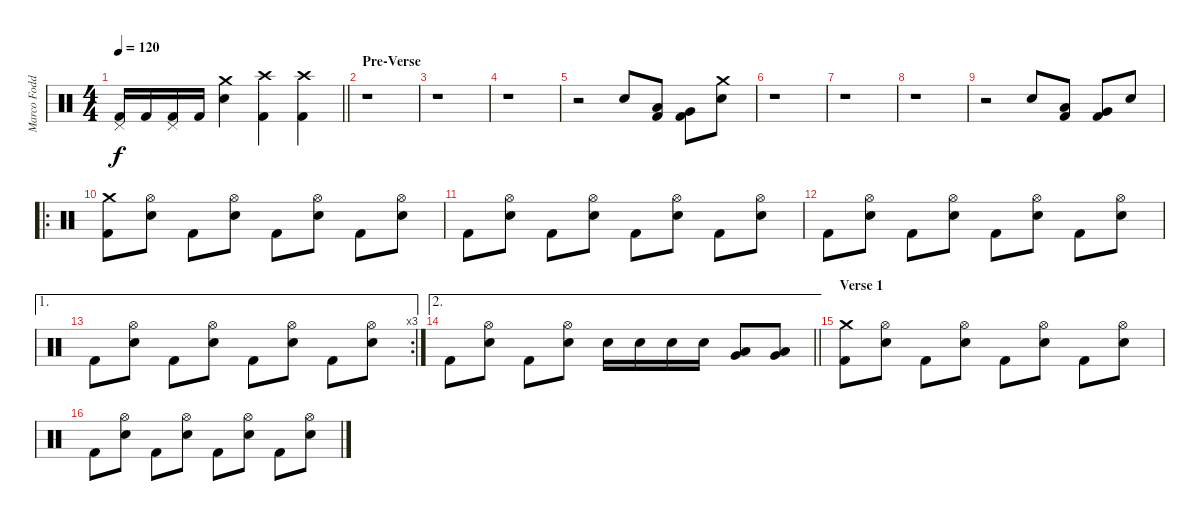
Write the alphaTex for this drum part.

\track ("Marco Foddis " "Marco Fodd") {instrument percussion}
\staff {score}
\articulation defaults
\ts (4 4)
\tempo 120
\clef neutral
\barLineRight lightlight
\ks c
("Pedal Hi-Hat (hit)" "Kick (hit) 2").16{dy f} "Kick (hit) 2".16 ("Pedal Hi-Hat (hit)" "Kick (hit) 2").16 "Kick (hit) 2".16 ("Crash medium (hit)" "Electric Snare (hit)").4 ("Crash high (hit)" "Kick (hit) 2").4 ("Crash high (hit)" "Kick (hit) 2").4 |
\section ("" "Pre-Verse")
r.1 |
r.1 |
r.1 |
r.2 "Electric Snare (hit)".8 ("Low Tom (hit)" "Kick (hit) 2").8 ("Very Low Tom (hit)" "Kick (hit) 2").8 ("Crash medium (hit)" "Electric Snare (hit)").8 |
r.1 |
r.1 |
r.1 |
r.2 "Electric Snare (hit)".8 ("Low Tom (hit)" "Kick (hit) 2").8 ("Very Low Tom (hit)" "Kick (hit) 2").8 "Electric Snare (hit)".8 |
\ro
("Crash medium (hit)" "Kick (hit) 2").8 ("Hi-Hat (open)" "Electric Snare (hit)").8 "Kick (hit) 2".8 ("Hi-Hat (open)" "Electric Snare (hit)").8 "Kick (hit) 2".8 ("Hi-Hat (open)" "Electric Snare (hit)").8 "Kick (hit) 2".8 ("Hi-Hat (open)" "Electric Snare (hit)").8 |
"Kick (hit) 2".8 ("Hi-Hat (open)" "Electric Snare (hit)").8 "Kick (hit) 2".8 ("Hi-Hat (open)" "Electric Snare (hit)").8 "Kick (hit) 2".8 ("Hi-Hat (open)" "Electric Snare (hit)").8 "Kick (hit) 2".8 ("Hi-Hat (open)" "Electric Snare (hit)").8 |
"Kick (hit) 2".8 ("Hi-Hat (open)" "Electric Snare (hit)").8 "Kick (hit) 2".8 ("Hi-Hat (open)" "Electric Snare (hit)").8 "Kick (hit) 2".8 ("Hi-Hat (open)" "Electric Snare (hit)").8 "Kick (hit) 2".8 ("Hi-Hat (open)" "Electric Snare (hit)").8 |
\ae 1
\rc 3 "Kick (hit) 2".8
("Hi-Hat (open)" "Electric Snare (hit)").8 "Kick (hit) 2".8 ("Hi-Hat (open)" "Electric Snare (hit)").8 "Kick (hit) 2".8 ("Hi-Hat (open)" "Electric Snare (hit)").8 "Kick (hit) 2".8 ("Hi-Hat (open)" "Electric Snare (hit)").8 |
\ae 2
\barLineRight lightlight "Kick (hit) 2".8
("Hi-Hat (open)" "Electric Snare (hit)").8 "Kick (hit) 2".8 ("Hi-Hat (open)" "Electric Snare (hit)").8 "Electric Snare (hit)".16 "Electric Snare (hit)".16 "Electric Snare (hit)".16 "Electric Snare (hit)".16 ("Low Tom (hit)" "Very Low Tom (hit)").8 ("Low Tom (hit)" "Very Low Tom (hit)").8 |
\section ("" "Verse 1")
("Crash medium (hit)" "Kick (hit) 2").8 ("Hi-Hat (open)" "Electric Snare (hit)").8 "Kick (hit) 2".8 ("Hi-Hat (open)" "Electric Snare (hit)").8 "Kick (hit) 2".8 ("Hi-Hat (open)" "Electric Snare (hit)").8 "Kick (hit) 2".8 ("Hi-Hat (open)" "Electric Snare (hit)").8 |
"Kick (hit) 2".8 ("Hi-Hat (open)" "Electric Snare (hit)").8 "Kick (hit) 2".8 ("Hi-Hat (open)" "Electric Snare (hit)").8 "Kick (hit) 2".8 ("Hi-Hat (open)" "Electric Snare (hit)").8 "Kick (hit) 2".8 ("Hi-Hat (open)" "Electric Snare (hit)").8
